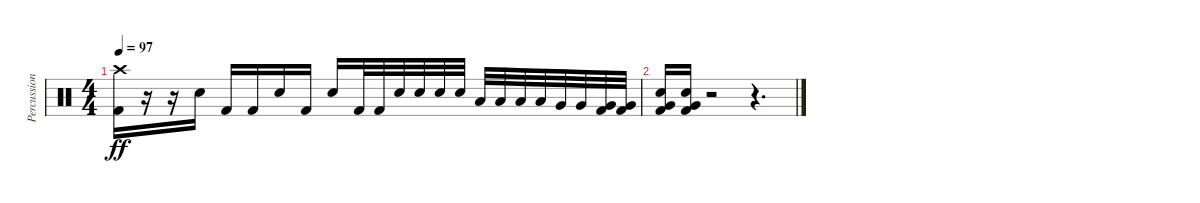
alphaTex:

\track ("Percussion" "Percussion") {instrument percussion}
\staff {score}
\articulation defaults
\ts (4 4)
\tempo 97
\clef neutral
\ks c
("Crash high (hit)" "Kick (hit) 2").16{dy ff} r.16 r.16 "Electric Snare (hit)".16 "Kick (hit) 2".16 "Kick (hit) 2".16 "Electric Snare (hit)".16 "Kick (hit) 2".16 "Electric Snare (hit)".16 "Kick (hit) 2".32 "Kick (hit) 2".32 "Electric Snare (hit)".32 "Electric Snare (hit)".32 "Electric Snare (hit)".32 "Electric Snare (hit)".32 "Low Tom (hit)".32 "Low Tom (hit)".32 "Low Tom (hit)".32 "Low Tom (hit)".32 "Very Low Tom (hit)".32 "Very Low Tom (hit)".32 ("Very Low Tom (hit)" "Kick (hit) 2").32 ("Very Low Tom (hit)" "Kick (hit) 2").32 |
("Very Low Tom (hit)" "Electric Snare (hit)" "Kick (hit) 2").16 ("Very Low Tom (hit)" "Electric Snare (hit)" "Kick (hit) 2").16 r.2 r.4{d}
